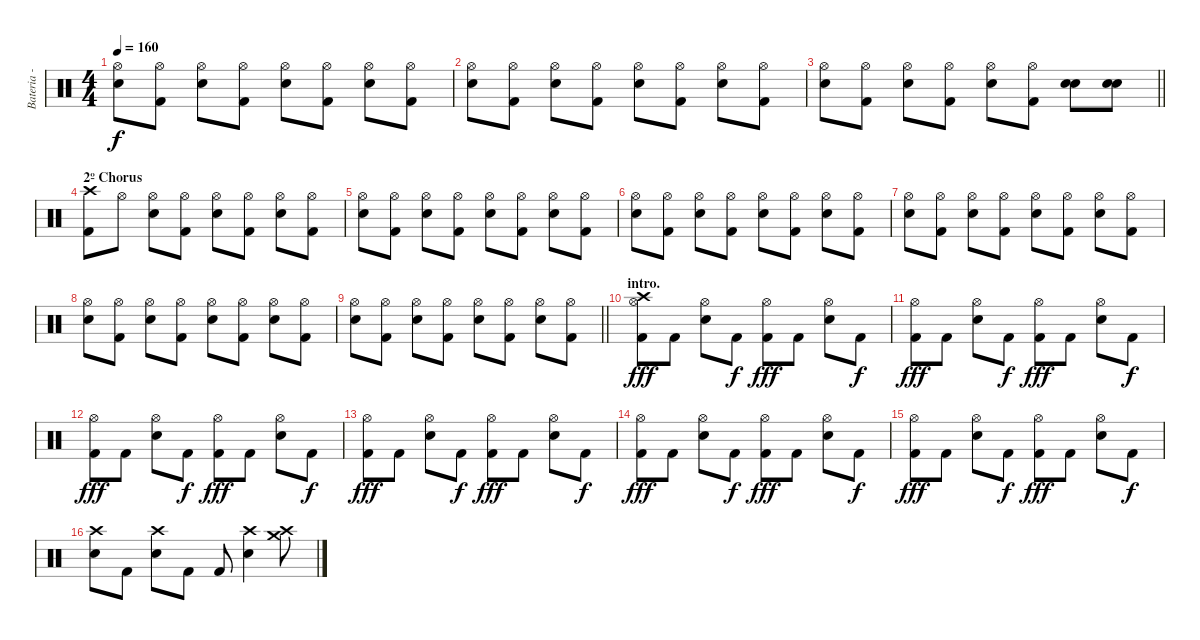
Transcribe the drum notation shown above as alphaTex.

\track ("Bateria - Larzon" "Bateria - ") {instrument percussion}
\staff {score}
\articulation defaults
\ts (4 4)
\tempo 160
\clef neutral
\ks c
("Electric Snare (hit)" "Hi-Hat (open)").8{dy f} ("Kick (hit) 2" "Hi-Hat (open)").8 ("Electric Snare (hit)" "Hi-Hat (open)").8 ("Kick (hit) 2" "Hi-Hat (open)").8 ("Electric Snare (hit)" "Hi-Hat (open)").8 ("Kick (hit) 2" "Hi-Hat (open)").8 ("Electric Snare (hit)" "Hi-Hat (open)").8 ("Kick (hit) 2" "Hi-Hat (open)").8 |
("Electric Snare (hit)" "Hi-Hat (open)").8 ("Kick (hit) 2" "Hi-Hat (open)").8 ("Electric Snare (hit)" "Hi-Hat (open)").8 ("Kick (hit) 2" "Hi-Hat (open)").8 ("Electric Snare (hit)" "Hi-Hat (open)").8 ("Kick (hit) 2" "Hi-Hat (open)").8 ("Electric Snare (hit)" "Hi-Hat (open)").8 ("Kick (hit) 2" "Hi-Hat (open)").8 |
\barLineRight lightlight
("Electric Snare (hit)" "Hi-Hat (open)").8 ("Kick (hit) 2" "Hi-Hat (open)").8 ("Electric Snare (hit)" "Hi-Hat (open)").8 ("Kick (hit) 2" "Hi-Hat (open)").8 ("Electric Snare (hit)" "Hi-Hat (open)").8 ("Kick (hit) 2" "Hi-Hat (open)").8 ("Electric Snare (hit)" "Electric Snare (hit)").8 ("Electric Snare (hit)" "Electric Snare (hit)").8 |
\section ("" "2º Chorus")
("Kick (hit) 2" "Crash high (hit)").8 "Hi-Hat (open)".8 ("Electric Snare (hit)" "Hi-Hat (open)").8 ("Kick (hit) 2" "Hi-Hat (open)").8 ("Electric Snare (hit)" "Hi-Hat (open)").8 ("Kick (hit) 2" "Hi-Hat (open)").8 ("Electric Snare (hit)" "Hi-Hat (open)").8 ("Kick (hit) 2" "Hi-Hat (open)").8 |
("Electric Snare (hit)" "Hi-Hat (open)").8 ("Kick (hit) 2" "Hi-Hat (open)").8 ("Electric Snare (hit)" "Hi-Hat (open)").8 ("Kick (hit) 2" "Hi-Hat (open)").8 ("Electric Snare (hit)" "Hi-Hat (open)").8 ("Kick (hit) 2" "Hi-Hat (open)").8 ("Electric Snare (hit)" "Hi-Hat (open)").8 ("Kick (hit) 2" "Hi-Hat (open)").8 |
("Electric Snare (hit)" "Hi-Hat (open)").8 ("Kick (hit) 2" "Hi-Hat (open)").8 ("Electric Snare (hit)" "Hi-Hat (open)").8 ("Kick (hit) 2" "Hi-Hat (open)").8 ("Electric Snare (hit)" "Hi-Hat (open)").8 ("Kick (hit) 2" "Hi-Hat (open)").8 ("Electric Snare (hit)" "Hi-Hat (open)").8 ("Kick (hit) 2" "Hi-Hat (open)").8 |
("Electric Snare (hit)" "Hi-Hat (open)").8 ("Kick (hit) 2" "Hi-Hat (open)").8 ("Electric Snare (hit)" "Hi-Hat (open)").8 ("Kick (hit) 2" "Hi-Hat (open)").8 ("Electric Snare (hit)" "Hi-Hat (open)").8 ("Kick (hit) 2" "Hi-Hat (open)").8 ("Electric Snare (hit)" "Hi-Hat (open)").8 ("Kick (hit) 2" "Hi-Hat (open)").8 |
("Electric Snare (hit)" "Hi-Hat (open)").8 ("Kick (hit) 2" "Hi-Hat (open)").8 ("Electric Snare (hit)" "Hi-Hat (open)").8 ("Kick (hit) 2" "Hi-Hat (open)").8 ("Electric Snare (hit)" "Hi-Hat (open)").8 ("Kick (hit) 2" "Hi-Hat (open)").8 ("Electric Snare (hit)" "Hi-Hat (open)").8 ("Kick (hit) 2" "Hi-Hat (open)").8 |
\barLineRight lightlight
("Electric Snare (hit)" "Hi-Hat (open)").8 ("Kick (hit) 2" "Hi-Hat (open)").8 ("Electric Snare (hit)" "Hi-Hat (open)").8 ("Kick (hit) 2" "Hi-Hat (open)").8 ("Electric Snare (hit)" "Hi-Hat (open)").8 ("Kick (hit) 2" "Hi-Hat (open)").8 ("Electric Snare (hit)" "Hi-Hat (open)").8 ("Kick (hit) 2" "Hi-Hat (open)").8 |
\section ("" "intro.")
("Kick (hit) 2" "Hi-Hat (open)" "Crash high (hit)").8{dy fff} "Kick (hit) 2".8 ("Electric Snare (hit)" "Hi-Hat (open)").8 "Kick (hit) 2".8{dy f} ("Kick (hit) 2" "Hi-Hat (open)").8{dy fff} "Kick (hit) 2".8 ("Electric Snare (hit)" "Hi-Hat (open)").8 "Kick (hit) 2".8{dy f} |
("Kick (hit) 2" "Hi-Hat (open)").8{dy fff} "Kick (hit) 2".8 ("Electric Snare (hit)" "Hi-Hat (open)").8 "Kick (hit) 2".8{dy f} ("Kick (hit) 2" "Hi-Hat (open)").8{dy fff} "Kick (hit) 2".8 ("Electric Snare (hit)" "Hi-Hat (open)").8 "Kick (hit) 2".8{dy f} |
("Kick (hit) 2" "Hi-Hat (open)").8{dy fff} "Kick (hit) 2".8 ("Electric Snare (hit)" "Hi-Hat (open)").8 "Kick (hit) 2".8{dy f} ("Kick (hit) 2" "Hi-Hat (open)").8{dy fff} "Kick (hit) 2".8 ("Electric Snare (hit)" "Hi-Hat (open)").8 "Kick (hit) 2".8{dy f} |
("Kick (hit) 2" "Hi-Hat (open)").8{dy fff} "Kick (hit) 2".8 ("Electric Snare (hit)" "Hi-Hat (open)").8 "Kick (hit) 2".8{dy f} ("Kick (hit) 2" "Hi-Hat (open)").8{dy fff} "Kick (hit) 2".8 ("Electric Snare (hit)" "Hi-Hat (open)").8 "Kick (hit) 2".8{dy f} |
("Kick (hit) 2" "Hi-Hat (open)").8{dy fff} "Kick (hit) 2".8 ("Electric Snare (hit)" "Hi-Hat (open)").8 "Kick (hit) 2".8{dy f} ("Kick (hit) 2" "Hi-Hat (open)").8{dy fff} "Kick (hit) 2".8 ("Electric Snare (hit)" "Hi-Hat (open)").8 "Kick (hit) 2".8{dy f} |
("Kick (hit) 2" "Hi-Hat (open)").8{dy fff} "Kick (hit) 2".8 ("Electric Snare (hit)" "Hi-Hat (open)").8 "Kick (hit) 2".8{dy f} ("Kick (hit) 2" "Hi-Hat (open)").8{dy fff} "Kick (hit) 2".8 ("Electric Snare (hit)" "Hi-Hat (open)").8 "Kick (hit) 2".8{dy f} |
("Electric Snare (hit)" "Crash high (hit)").8 "Kick (hit) 2".8 ("Electric Snare (hit)" "Crash high (hit)").8 "Kick (hit) 2".8 "Kick (hit) 2".8 ("Electric Snare (hit)" "Crash high (hit)").4 ("Crash high (hit)" "Crash medium (hit)").8
